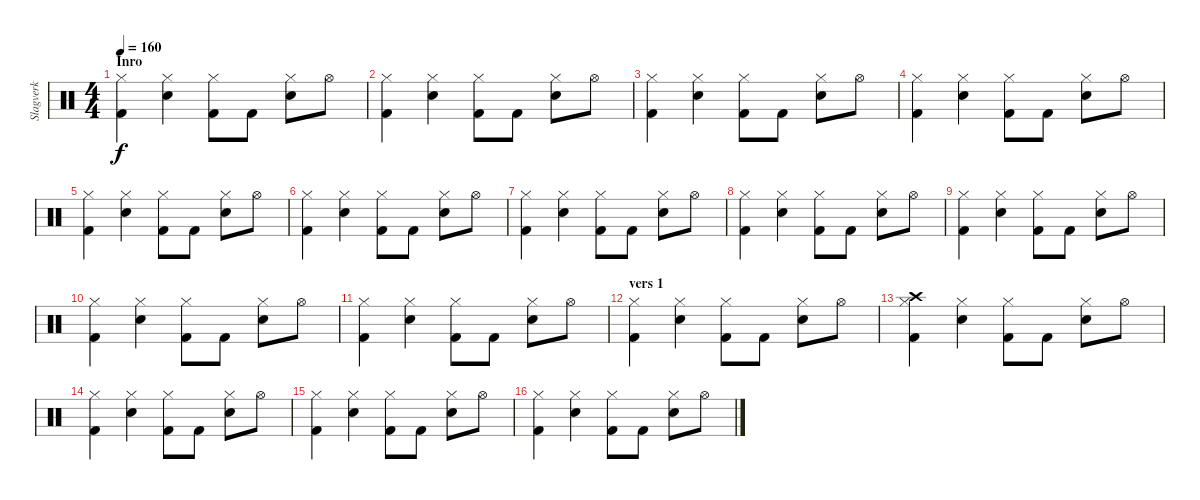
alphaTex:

\track ("Slagverk" "Slagverk") {instrument percussion}
\staff {score}
\articulation defaults
\ts (4 4)
\section ("" "Inro")
\tempo 160
\clef neutral
\ks c
("Hi-Hat (closed)" "Kick (hit) 2").4{dy f} ("Hi-Hat (closed)" "Snare (hit) 2").4 ("Hi-Hat (closed)" "Kick (hit) 2").8 "Kick (hit) 2".8 ("Hi-Hat (closed)" "Snare (hit) 2").8 "Hi-Hat (open)".8 |
("Hi-Hat (closed)" "Kick (hit) 2").4 ("Hi-Hat (closed)" "Snare (hit) 2").4 ("Hi-Hat (closed)" "Kick (hit) 2").8 "Kick (hit) 2".8 ("Hi-Hat (closed)" "Snare (hit) 2").8 "Hi-Hat (open)".8 |
("Hi-Hat (closed)" "Kick (hit) 2").4 ("Hi-Hat (closed)" "Snare (hit) 2").4 ("Hi-Hat (closed)" "Kick (hit) 2").8 "Kick (hit) 2".8 ("Hi-Hat (closed)" "Snare (hit) 2").8 "Hi-Hat (open)".8 |
("Hi-Hat (closed)" "Kick (hit) 2").4 ("Hi-Hat (closed)" "Snare (hit) 2").4 ("Hi-Hat (closed)" "Kick (hit) 2").8 "Kick (hit) 2".8 ("Hi-Hat (closed)" "Snare (hit) 2").8 "Hi-Hat (open)".8 |
("Hi-Hat (closed)" "Kick (hit) 2").4 ("Hi-Hat (closed)" "Snare (hit) 2").4 ("Hi-Hat (closed)" "Kick (hit) 2").8 "Kick (hit) 2".8 ("Hi-Hat (closed)" "Snare (hit) 2").8 "Hi-Hat (open)".8 |
("Hi-Hat (closed)" "Kick (hit) 2").4 ("Hi-Hat (closed)" "Snare (hit) 2").4 ("Hi-Hat (closed)" "Kick (hit) 2").8 "Kick (hit) 2".8 ("Hi-Hat (closed)" "Snare (hit) 2").8 "Hi-Hat (open)".8 |
("Hi-Hat (closed)" "Kick (hit) 2").4 ("Hi-Hat (closed)" "Snare (hit) 2").4 ("Hi-Hat (closed)" "Kick (hit) 2").8 "Kick (hit) 2".8 ("Hi-Hat (closed)" "Snare (hit) 2").8 "Hi-Hat (open)".8 |
("Hi-Hat (closed)" "Kick (hit) 2").4 ("Hi-Hat (closed)" "Snare (hit) 2").4 ("Hi-Hat (closed)" "Kick (hit) 2").8 "Kick (hit) 2".8 ("Hi-Hat (closed)" "Snare (hit) 2").8 "Hi-Hat (open)".8 |
("Hi-Hat (closed)" "Kick (hit) 2").4 ("Hi-Hat (closed)" "Snare (hit) 2").4 ("Hi-Hat (closed)" "Kick (hit) 2").8 "Kick (hit) 2".8 ("Hi-Hat (closed)" "Snare (hit) 2").8 "Hi-Hat (open)".8 |
("Hi-Hat (closed)" "Kick (hit) 2").4 ("Hi-Hat (closed)" "Snare (hit) 2").4 ("Hi-Hat (closed)" "Kick (hit) 2").8 "Kick (hit) 2".8 ("Hi-Hat (closed)" "Snare (hit) 2").8 "Hi-Hat (open)".8 |
("Hi-Hat (closed)" "Kick (hit) 2").4 ("Hi-Hat (closed)" "Snare (hit) 2").4 ("Hi-Hat (closed)" "Kick (hit) 2").8 "Kick (hit) 2".8 ("Hi-Hat (closed)" "Snare (hit) 2").8 "Hi-Hat (open)".8 |
\section ("" "vers 1")
("Hi-Hat (closed)" "Kick (hit) 2").4 ("Hi-Hat (closed)" "Snare (hit) 2").4 ("Hi-Hat (closed)" "Kick (hit) 2").8 "Kick (hit) 2".8 ("Hi-Hat (closed)" "Snare (hit) 2").8 "Hi-Hat (open)".8 |
("Hi-Hat (closed)" "Crash high (hit)" "Kick (hit) 2").4 ("Hi-Hat (closed)" "Snare (hit) 2").4 ("Hi-Hat (closed)" "Kick (hit) 2").8 "Kick (hit) 2".8 ("Hi-Hat (closed)" "Snare (hit) 2").8 "Hi-Hat (open)".8 |
("Hi-Hat (closed)" "Kick (hit) 2").4 ("Hi-Hat (closed)" "Snare (hit) 2").4 ("Hi-Hat (closed)" "Kick (hit) 2").8 "Kick (hit) 2".8 ("Hi-Hat (closed)" "Snare (hit) 2").8 "Hi-Hat (open)".8 |
("Hi-Hat (closed)" "Kick (hit) 2").4 ("Hi-Hat (closed)" "Snare (hit) 2").4 ("Hi-Hat (closed)" "Kick (hit) 2").8 "Kick (hit) 2".8 ("Hi-Hat (closed)" "Snare (hit) 2").8 "Hi-Hat (open)".8 |
("Hi-Hat (closed)" "Kick (hit) 2").4 ("Hi-Hat (closed)" "Snare (hit) 2").4 ("Hi-Hat (closed)" "Kick (hit) 2").8 "Kick (hit) 2".8 ("Hi-Hat (closed)" "Snare (hit) 2").8 "Hi-Hat (open)".8
